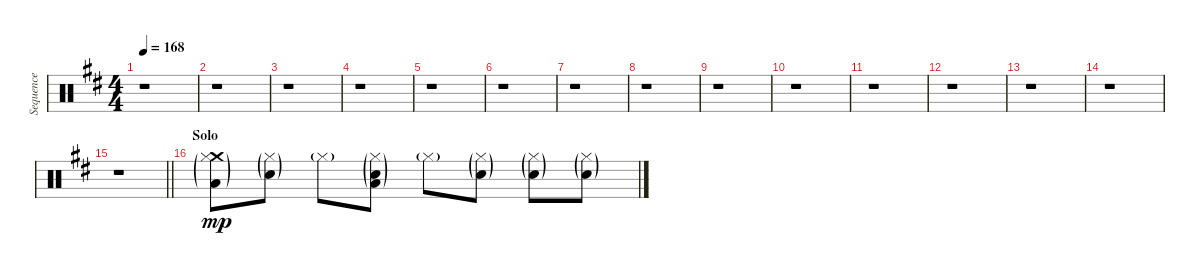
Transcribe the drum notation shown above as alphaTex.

\track ("Sequence" "Sequence") {instrument percussion}
\staff {score}
\articulation defaults
\ts (4 4)
\tempo 168
\clef neutral
\ks d
r.1{dy mp} |
r.1 |
r.1 |
r.1 |
r.1 |
r.1 |
r.1 |
r.1 |
r.1 |
r.1 |
r.1 |
r.1 |
r.1 |
r.1 |
\barLineRight lightlight
r.1 |
\section ("" "Solo")
("Crash medium (hit)"{g} "Hi-Hat (closed)"{g} "Low Floor Tom (hit)"{g}).8 ("Hi-Hat (closed)"{g} "Electric Snare (hit)"{g}).8 "Hi-Hat (closed)"{g}.8 ("Hi-Hat (closed)"{g} "Electric Snare (hit)"{g} "Low Floor Tom (hit)"{g}).8 "Hi-Hat (closed)"{g}.8 ("Hi-Hat (closed)"{g} "Electric Snare (hit)"{g}).8 ("Hi-Hat (closed)"{g} "Electric Snare (hit)"{g}).8 ("Hi-Hat (closed)"{g} "Electric Snare (hit)"{g}).8
